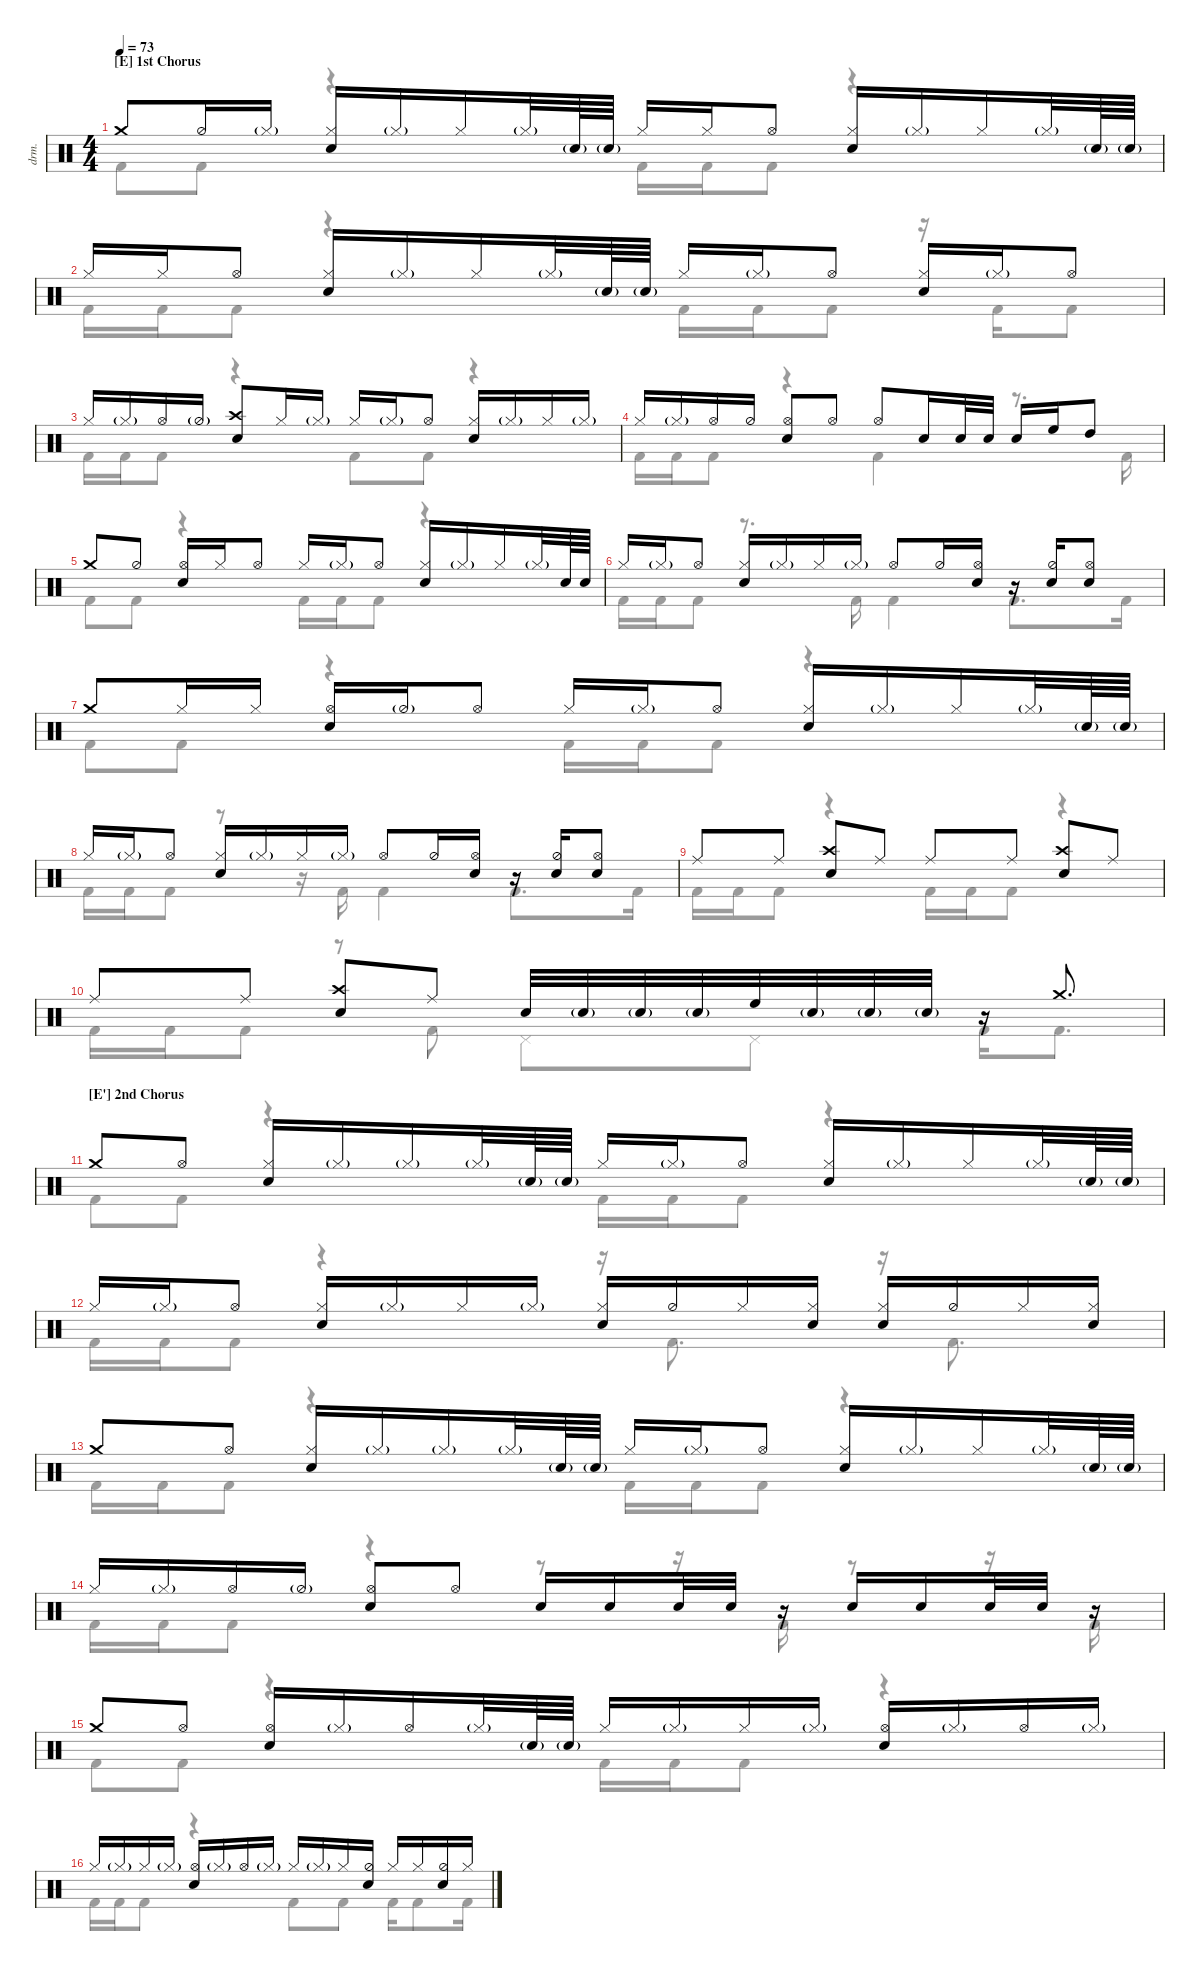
\defaultSystemsLayout 4
\hideDynamics
\bracketExtendMode nobrackets
\track ("Drums" "drm.") {instrument percussion}
\staff {score}
\articulation defaults
\voice
\ts (4 4)
\section ("E" "1st Chorus")
\tempo 73
\clef neutral
\scale
0.50988
\ks c "Crash medium (hit)".8{dy mf} "Hi-Hat (half)".16 "Hi-Hat (closed)"{g}.16
("Hi-Hat (closed)" "Snare (hit) 2").16 "Hi-Hat (closed)"{g}.16 "Hi-Hat (closed)".16 "Hi-Hat (closed)"{g}.32 "Snare (hit) 2"{g}.64 "Snare (hit) 2"{g}.64 "Hi-Hat (closed)".16 "Hi-Hat (closed)".16 "Hi-Hat (open)".8 ("Hi-Hat (closed)" "Snare (hit) 2").16 "Hi-Hat (closed)"{g}.16 "Hi-Hat (closed)".16 "Hi-Hat (closed)"{g}.32 "Snare (hit) 2"{g}.64 "Snare (hit) 2"{g}.64 |
\scale
0.49012 "Hi-Hat (closed)".16 "Hi-Hat (closed)".16 "Hi-Hat (open)".8 ("Hi-Hat (closed)" "Snare (hit) 2").16 "Hi-Hat (closed)"{g}.16 "Hi-Hat (closed)".16 "Hi-Hat (closed)"{g}.32 "Snare (hit) 2"{g}.64 "Snare (hit) 2"{g}.64 "Hi-Hat (closed)".16 "Hi-Hat (closed)"{g}.16 "Hi-Hat (open)".8 ("Hi-Hat (closed)" "Snare (hit) 2").16 "Hi-Hat (closed)"{g}.16 "Hi-Hat (open)".8 |
\scale
0.510964 "Hi-Hat (closed)".16 "Hi-Hat (closed)"{g}.16 "Hi-Hat (open)".16 "Hi-Hat (half)"{g}.16 ("Crash high (hit)" "Snare (hit) 2").8 "Hi-Hat (closed)".16 "Hi-Hat (closed)"{g}.16 "Hi-Hat (closed)".16 "Hi-Hat (closed)"{g}.16 "Hi-Hat (open)".8 ("Hi-Hat (closed)" "Snare (hit) 2").16 "Hi-Hat (closed)"{g}.16 "Hi-Hat (closed)".16 "Hi-Hat (closed)"{g}.16 |
\scale
0.489036 "Hi-Hat (closed)".16 "Hi-Hat (closed)"{g}.16 "Hi-Hat (open)".16 "Hi-Hat (half)".16 ("Hi-Hat (open)" "Snare (hit) 2").8 "Hi-Hat (open)".8 "Hi-Hat (open)".8 "Snare (hit) 2".16 "Snare (hit) 2".32 "Snare (hit) 2".32 "Snare (hit) 2".16 "High Floor Tom (hit)".16 "High Tom (hit)".8 |
\scale
0.513434 "Crash medium (hit)".8 "Hi-Hat (half)".8 ("Hi-Hat (open)" "Snare (hit) 2").16 "Hi-Hat (closed)".16 "Hi-Hat (open)".8 "Hi-Hat (closed)".16 "Hi-Hat (closed)"{g}.16 "Hi-Hat (open)".8 ("Hi-Hat (closed)" "Snare (hit) 2").16 "Hi-Hat (closed)"{g}.16 "Hi-Hat (closed)".16 "Hi-Hat (closed)"{g}.32 "Snare (hit) 2".64 "Snare (hit) 2".64 |
\scale
0.486566 "Hi-Hat (closed)".16 "Hi-Hat (closed)"{g}.16 "Hi-Hat (open)".8 ("Hi-Hat (closed)" "Snare (hit) 2").16 "Hi-Hat (closed)"{g}.16 "Hi-Hat (closed)".16 "Hi-Hat (closed)"{g}.16 "Hi-Hat (open)".8 "Hi-Hat (half)".16 ("Hi-Hat (open)" "Snare (hit) 2").16 r.16 ("Hi-Hat (half)" "Snare (hit) 2").16 ("Snare (hit) 2" "Hi-Hat (open)").8 |
\scale
0.507796 "Crash medium (hit)".8 "Hi-Hat (closed)".16 "Hi-Hat (closed)".16 ("Hi-Hat (open)" "Snare (hit) 2").16 "Hi-Hat (half)"{g}.16 "Hi-Hat (open)".8 "Hi-Hat (closed)".16 "Hi-Hat (closed)"{g}.16 "Hi-Hat (open)".8 ("Hi-Hat (closed)" "Snare (hit) 2").16 "Hi-Hat (closed)"{g}.16 "Hi-Hat (closed)".16 "Hi-Hat (closed)"{g}.32 "Snare (hit) 2"{g}.64 "Snare (hit) 2"{g}.64 |
\scale
0.492204 "Hi-Hat (closed)".16 "Hi-Hat (closed)"{g}.16 "Hi-Hat (open)".8 ("Hi-Hat (closed)" "Snare (hit) 2").16 "Hi-Hat (closed)"{g}.16 "Hi-Hat (closed)".16 "Hi-Hat (closed)"{g}.16 "Hi-Hat (open)".8 "Hi-Hat (half)".16 ("Hi-Hat (open)" "Snare (hit) 2").16 r.16 ("Hi-Hat (half)" "Snare (hit) 2").16 ("Hi-Hat (open)" "Snare (hit) 2").8 |
"Ride (middle)".8 "Ride (middle)".8 ("Crash high (hit)" "Snare (hit) 2").8 "Ride (middle)".8 "Ride (middle)".8 "Ride (middle)".8 ("Crash high (hit)" "Snare (hit) 2").8 "Ride (middle)".8 |
"Ride (middle)".8 "Ride (middle)".8 ("Crash high (hit)" "Snare (hit) 2").8 "Ride (middle)".8 "Snare (hit) 2".32 "Snare (hit) 2"{g}.32 "Snare (hit) 2"{g}.32 "Snare (hit) 2"{g}.32 "High Floor Tom (hit)".32 "Snare (hit) 2"{g}.32 "Snare (hit) 2"{g}.32 "Snare (hit) 2"{g}.32 r.16 "Crash medium (hit)".8{d} |
\section ("E'" "2nd Chorus")
\scale
0.509789 "Crash medium (hit)".8 "Hi-Hat (open)".8 ("Hi-Hat (closed)" "Snare (hit) 2").16 "Hi-Hat (closed)"{g}.16 "Hi-Hat (closed)"{g}.16 "Hi-Hat (closed)"{g}.32 "Snare (hit) 2"{g}.64 "Snare (hit) 2"{g}.64 "Hi-Hat (closed)".16 "Hi-Hat (closed)"{g}.16 "Hi-Hat (open)".8 ("Hi-Hat (closed)" "Snare (hit) 2").16 "Hi-Hat (closed)"{g}.16 "Hi-Hat (closed)".16 "Hi-Hat (closed)"{g}.32 "Snare (hit) 2"{g}.64 "Snare (hit) 2"{g}.64 |
\scale
0.490211 "Hi-Hat (closed)".16 "Hi-Hat (closed)"{g}.16 "Hi-Hat (open)".8 ("Hi-Hat (closed)" "Snare (hit) 2").16 "Hi-Hat (closed)"{g}.16 "Hi-Hat (closed)".16 "Hi-Hat (closed)"{g}.16 ("Hi-Hat (closed)" "Snare (hit) 2").16 "Hi-Hat (half)".16 "Hi-Hat (closed)".16 ("Hi-Hat (closed)" "Snare (hit) 2").16 ("Hi-Hat (closed)" "Snare (hit) 2").16 "Hi-Hat (half)".16 "Hi-Hat (closed)".16 ("Hi-Hat (closed)" "Snare (hit) 2").16 |
\scale
0.509788 "Crash medium (hit)".8 "Hi-Hat (open)".8 ("Hi-Hat (closed)" "Snare (hit) 2").16 "Hi-Hat (closed)"{g}.16 "Hi-Hat (closed)"{g}.16 "Hi-Hat (closed)"{g}.32 "Snare (hit) 2"{g}.64 "Snare (hit) 2"{g}.64 "Hi-Hat (closed)".16 "Hi-Hat (closed)"{g}.16 "Hi-Hat (open)".8 ("Hi-Hat (closed)" "Snare (hit) 2").16 "Hi-Hat (closed)"{g}.16 "Hi-Hat (closed)".16 "Hi-Hat (closed)"{g}.32 "Snare (hit) 2"{g}.64 "Snare (hit) 2"{g}.64 |
\scale
0.490212 "Hi-Hat (closed)".16 "Hi-Hat (closed)"{g}.16 "Hi-Hat (open)".16 "Hi-Hat (half)"{g}.16 ("Hi-Hat (open)" "Snare (hit) 2").8 "Hi-Hat (open)".8 "Snare (hit) 2".16 "Snare (hit) 2".16 "Snare (hit) 2".32 "Snare (hit) 2".32 r.16 "Snare (hit) 2".16 "Snare (hit) 2".16 "Snare (hit) 2".32 "Snare (hit) 2".32 r.16 |
\scale
0.50979 "Crash medium (hit)".8 "Hi-Hat (open)".8 ("Hi-Hat (open)" "Snare (hit) 2").16 "Hi-Hat (closed)"{g}.16 "Hi-Hat (open)".16 "Hi-Hat (closed)"{g}.32 "Snare (hit) 2"{g}.64 "Snare (hit) 2"{g}.64 "Hi-Hat (closed)".16 "Hi-Hat (closed)"{g}.16 "Hi-Hat (closed)".16 "Hi-Hat (closed)"{g}.16 ("Hi-Hat (open)" "Snare (hit) 2").16 "Hi-Hat (closed)"{g}.16 "Hi-Hat (open)".16 "Hi-Hat (closed)"{g}.16 |
\scale
0.49021 "Hi-Hat (closed)".16 "Hi-Hat (closed)"{g}.16 "Hi-Hat (closed)".16 "Hi-Hat (closed)"{g}.16 ("Hi-Hat (open)" "Snare (hit) 2").16 "Hi-Hat (closed)"{g}.16 "Hi-Hat (open)".16 "Hi-Hat (closed)"{g}.16 "Hi-Hat (closed)".16 "Hi-Hat (closed)"{g}.16 "Hi-Hat (closed)".16 ("Hi-Hat (half)" "Snare (hit) 2").16 "Hi-Hat (closed)".16 "Hi-Hat (closed)".16 ("Hi-Hat (half)" "Snare (hit) 2").16 "Hi-Hat (closed)".16
\voice
\clef neutral
\ottava regular
\simile none
\scale
0.50988
\ks c "Kick (hit) 2".8{dy mf} "Kick (hit) 2".8
r.4 "Kick (hit) 2".16 "Kick (hit) 2".16 "Kick (hit) 2".8 r.4 |
\scale
0.49012 "Kick (hit) 2".16 "Kick (hit) 2".16 "Kick (hit) 2".8 r.4 "Kick (hit) 2".16 "Kick (hit) 2".16 "Kick (hit) 2".8 r.16 "Kick (hit) 2".16 "Kick (hit) 2".8 |
\scale
0.510964 "Kick (hit) 2".16 "Kick (hit) 2".16 "Kick (hit) 2".8 r.4 "Kick (hit) 2".8 "Kick (hit) 2".8 r.4 |
\scale
0.489036 "Kick (hit) 2".16 "Kick (hit) 2".16 "Kick (hit) 2".8 r.4 "Kick (hit) 2".4 r.8{d} "Kick (hit) 2".16 |
\scale
0.513434 "Kick (hit) 2".8 "Kick (hit) 2".8 r.4 "Kick (hit) 2".16 "Kick (hit) 2".16 "Kick (hit) 2".8 r.4 |
\scale
0.486566 "Kick (hit) 2".16 "Kick (hit) 2".16 "Kick (hit) 2".8 r.8{d} "Kick (hit) 2".16 "Kick (hit) 2".4 "Kick (hit) 2".8{d} "Kick (hit) 2".16 |
\scale
0.507796 "Kick (hit) 2".8 "Kick (hit) 2".8 r.4 "Kick (hit) 2".16 "Kick (hit) 2".16 "Kick (hit) 2".8 r.4 |
\scale
0.492204 "Kick (hit) 2".16 "Kick (hit) 2".16 "Kick (hit) 2".8 r.8 r.16 "Kick (hit) 2".16 "Kick (hit) 2".4 "Kick (hit) 2".8{d} "Kick (hit) 2".16 |
"Kick (hit) 2".16 "Kick (hit) 2".16 "Kick (hit) 2".8 r.4 "Kick (hit) 2".16 "Kick (hit) 2".16 "Kick (hit) 2".8 r.4 |
"Kick (hit) 2".16 "Kick (hit) 2".16 "Kick (hit) 2".8 r.8 "Kick (hit) 2".8 "Pedal Hi-Hat (hit)".8 "Pedal Hi-Hat (hit)".8 "Kick (hit) 2".16 "Kick (hit) 2".8{d} |
\scale
0.509789 "Kick (hit) 2".8 "Kick (hit) 2".8 r.4 "Kick (hit) 2".16 "Kick (hit) 2".16 "Kick (hit) 2".8 r.4 |
\scale
0.490211 "Kick (hit) 2".16 "Kick (hit) 2".16 "Kick (hit) 2".8 r.4 r.16 "Kick (hit) 2".8{d} r.16 "Kick (hit) 2".8{d} |
\scale
0.509788 "Kick (hit) 2".16 "Kick (hit) 2".16 "Kick (hit) 2".8 r.4 "Kick (hit) 2".16 "Kick (hit) 2".16 "Kick (hit) 2".8 r.4 |
\scale
0.490212 "Kick (hit) 2".16 "Kick (hit) 2".16 "Kick (hit) 2".8 r.4 r.8 r.16 "Kick (hit) 2".16 r.8 r.16 "Kick (hit) 2".16 |
\scale
0.50979 "Kick (hit) 2".8 "Kick (hit) 2".8 r.4 "Kick (hit) 2".16 "Kick (hit) 2".16 "Kick (hit) 2".8 r.4 |
\scale
0.49021 "Kick (hit) 2".16 "Kick (hit) 2".16 "Kick (hit) 2".8 r.4 "Kick (hit) 2".8 "Kick (hit) 2".8 "Kick (hit) 2".16 "Kick (hit) 2".8 "Kick (hit) 2".16
